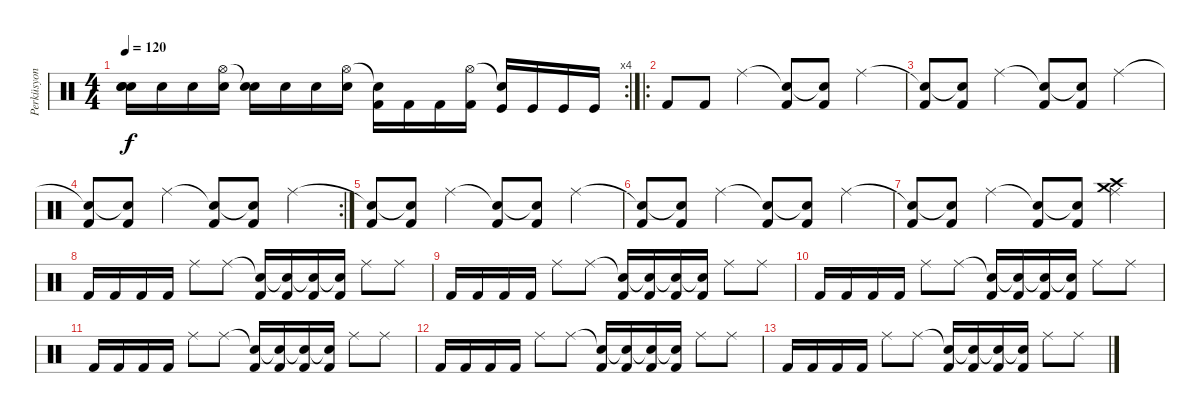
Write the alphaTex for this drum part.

\track ("Perküsyon" "Perküsyon") {instrument percussion}
\staff {score}
\articulation defaults
\rc 4
\ts (4 4)
\tempo 120
\clef neutral
\ks c
("Snare (hit)"{t} "Snare (hit)"{t} "Electric Snare (hit)").16{dy f} "Electric Snare (hit)".16 "Electric Snare (hit)".16 ("Hi-Hat (open)" "Electric Snare (hit)").16 ("Snare (hit)"{t} "Snare (hit) 2").16 "Snare (hit) 2".16 "Snare (hit) 2".16 ("Hi-Hat (open)" "Snare (hit) 2").16 ("Snare (hit)"{t} "Kick (hit) 2").16 "Kick (hit) 2".16 "Kick (hit) 2".16 ("Hi-Hat (open)" "Kick (hit) 2").16 ("Snare (hit)"{t} "Kick (hit)").16 "Kick (hit)".16 "Kick (hit)".16 "Kick (hit)".16 |
\ro "Kick (hit) 2".8 "Kick (hit) 2".8 "Ride (middle)".4
("Snare (hit)"{t} "Kick (hit) 2").8 ("Snare (hit)"{t} "Kick (hit) 2").8 "Ride (middle)".4 |
("Snare (hit)"{t} "Kick (hit) 2").8 ("Snare (hit)"{t} "Kick (hit) 2").8 "Ride (middle)".4 ("Snare (hit)"{t} "Kick (hit) 2").8 ("Snare (hit)"{t} "Kick (hit) 2").8 "Ride (middle)".4 |
\rc 2
("Snare (hit)"{t} "Kick (hit) 2").8 ("Snare (hit)"{t} "Kick (hit) 2").8 "Ride (middle)".4 ("Snare (hit)"{t} "Kick (hit) 2").8 ("Snare (hit)"{t} "Kick (hit) 2").8 "Ride (middle)".4 |
("Snare (hit)"{t} "Kick (hit) 2").8 ("Snare (hit)"{t} "Kick (hit) 2").8 "Ride (middle)".4 ("Snare (hit)"{t} "Kick (hit) 2").8 ("Snare (hit)"{t} "Kick (hit) 2").8 "Ride (middle)".4 |
("Snare (hit)"{t} "Kick (hit) 2").8 ("Snare (hit)"{t} "Kick (hit) 2").8 "Ride (middle)".4 ("Snare (hit)"{t} "Kick (hit) 2").8 ("Snare (hit)"{t} "Kick (hit) 2").8 "Ride (middle)".4 |
("Snare (hit)"{t} "Kick (hit) 2").8 ("Snare (hit)"{t} "Kick (hit) 2").8 "Ride (middle)".4 ("Snare (hit)"{t} "Kick (hit) 2").8 ("Snare (hit)"{t} "Kick (hit) 2").8 ("Ride (middle)" "Crash medium (hit)" "Crash high (hit)").4 |
"Kick (hit) 2".16 "Kick (hit) 2".16 "Kick (hit) 2".16 "Kick (hit) 2".16 "Ride (middle)".8 "Ride (middle)".8 ("Snare (hit)"{t} "Kick (hit) 2").16 ("Snare (hit)"{t} "Kick (hit) 2").16 ("Snare (hit)"{t} "Kick (hit) 2").16 ("Snare (hit)"{t} "Kick (hit) 2").16 "Ride (middle)".8 "Ride (middle)".8 |
"Kick (hit) 2".16 "Kick (hit) 2".16 "Kick (hit) 2".16 "Kick (hit) 2".16 "Ride (middle)".8 "Ride (middle)".8 ("Snare (hit)"{t} "Kick (hit) 2").16 ("Snare (hit)"{t} "Kick (hit) 2").16 ("Snare (hit)"{t} "Kick (hit) 2").16 ("Snare (hit)"{t} "Kick (hit) 2").16 "Ride (middle)".8 "Ride (middle)".8 |
"Kick (hit) 2".16 "Kick (hit) 2".16 "Kick (hit) 2".16 "Kick (hit) 2".16 "Ride (middle)".8 "Ride (middle)".8 ("Snare (hit)"{t} "Kick (hit) 2").16 ("Snare (hit)"{t} "Kick (hit) 2").16 ("Snare (hit)"{t} "Kick (hit) 2").16 ("Snare (hit)"{t} "Kick (hit) 2").16 "Ride (middle)".8 "Ride (middle)".8 |
"Kick (hit) 2".16 "Kick (hit) 2".16 "Kick (hit) 2".16 "Kick (hit) 2".16 "Ride (middle)".8 "Ride (middle)".8 ("Snare (hit)"{t} "Kick (hit) 2").16 ("Snare (hit)"{t} "Kick (hit) 2").16 ("Snare (hit)"{t} "Kick (hit) 2").16 ("Snare (hit)"{t} "Kick (hit) 2").16 "Ride (middle)".8 "Ride (middle)".8 |
"Kick (hit) 2".16 "Kick (hit) 2".16 "Kick (hit) 2".16 "Kick (hit) 2".16 "Ride (middle)".8 "Ride (middle)".8 ("Snare (hit)"{t} "Kick (hit) 2").16 ("Snare (hit)"{t} "Kick (hit) 2").16 ("Snare (hit)"{t} "Kick (hit) 2").16 ("Snare (hit)"{t} "Kick (hit) 2").16 "Ride (middle)".8 "Ride (middle)".8 |
"Kick (hit) 2".16 "Kick (hit) 2".16 "Kick (hit) 2".16 "Kick (hit) 2".16 "Ride (middle)".8 "Ride (middle)".8 ("Snare (hit)"{t} "Kick (hit) 2").16 ("Snare (hit)"{t} "Kick (hit) 2").16 ("Snare (hit)"{t} "Kick (hit) 2").16 ("Snare (hit)"{t} "Kick (hit) 2").16 "Ride (middle)".8 "Ride (middle)".8
